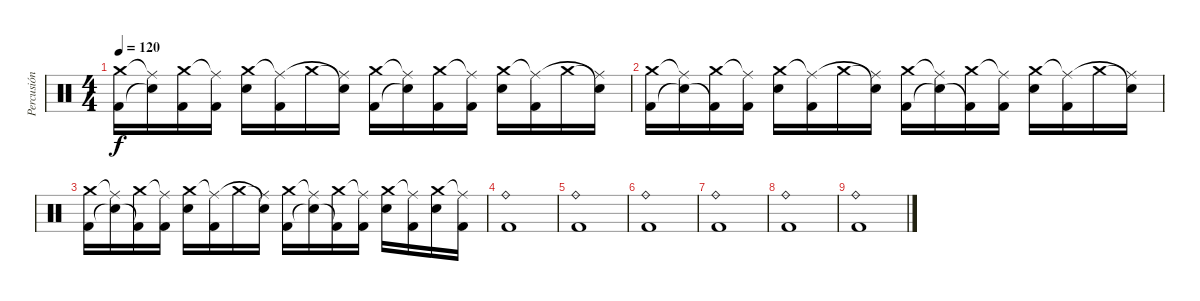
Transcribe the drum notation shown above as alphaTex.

\track ("Percusión" "Percusión") {instrument percussion}
\staff {score}
\articulation defaults
\ts (4 4)
\tempo 120
\clef neutral
\ks c
("Kick (hit) 2" "Crash medium (hit)").16{dy f} ("Snare (hit)"{t} "Ride (middle)"{t}).16 ("Kick (hit) 2" "Crash medium (hit)").16 ("Kick (hit) 2" "Ride (middle)"{t}).16 ("Electric Snare (hit)" "Crash medium (hit)").16 ("Kick (hit) 2" "Ride (middle)"{t}).16 "Crash medium (hit)".16 ("Snare (hit)"{t} "Ride (middle)"{t}).16 ("Kick (hit) 2" "Crash medium (hit)").16 ("Snare (hit)"{t} "Ride (middle)"{t}).16 ("Kick (hit) 2" "Crash medium (hit)").16 ("Kick (hit) 2" "Ride (middle)"{t}).16 ("Electric Snare (hit)" "Crash medium (hit)").16 ("Kick (hit) 2" "Ride (middle)"{t}).16 "Crash medium (hit)".16 ("Snare (hit)"{t} "Ride (middle)"{t}).16 |
("Kick (hit) 2" "Crash medium (hit)").16 ("Snare (hit)"{t} "Ride (middle)"{t}).16 ("Kick (hit) 2"{t} "Crash medium (hit)").16 ("Kick (hit) 2" "Ride (middle)"{t}).16 ("Electric Snare (hit)" "Crash medium (hit)").16 ("Kick (hit) 2" "Ride (middle)"{t}).16 "Crash medium (hit)".16 ("Snare (hit)"{t} "Ride (middle)"{t}).16 ("Kick (hit) 2" "Crash medium (hit)").16 ("Snare (hit)"{t} "Ride (middle)"{t}).16 ("Kick (hit) 2"{t} "Crash medium (hit)").16 ("Kick (hit) 2" "Ride (middle)"{t}).16 ("Electric Snare (hit)" "Crash medium (hit)").16 ("Kick (hit) 2" "Ride (middle)"{t}).16 "Crash medium (hit)".16 ("Snare (hit)"{t} "Ride (middle)"{t}).16 |
("Kick (hit) 2" "Crash medium (hit)").16 ("Snare (hit)"{t} "Ride (middle)"{t}).16 ("Kick (hit) 2"{t} "Crash medium (hit)").16 ("Kick (hit) 2" "Ride (middle)"{t}).16 ("Electric Snare (hit)" "Crash medium (hit)").16 ("Kick (hit) 2" "Ride (middle)"{t}).16 "Crash medium (hit)".16 ("Snare (hit)"{t} "Ride (middle)"{t}).16 ("Kick (hit) 2" "Crash medium (hit)").16 ("Snare (hit)"{t} "Ride (middle)"{t}).16 ("Kick (hit) 2"{t} "Crash medium (hit)").16 ("Kick (hit) 2" "Ride (middle)"{t}).16 ("Electric Snare (hit)" "Crash medium (hit)").16 ("Kick (hit) 2" "Ride (middle)"{t}).16 ("Electric Snare (hit)" "Crash medium (hit)").16 ("Kick (hit) 2" "Ride (middle)"{t}).16 |
("Ride (bell)" "Kick (hit) 2").1 |
("Ride (bell)" "Kick (hit) 2").1 |
("Ride (bell)" "Kick (hit) 2").1 |
("Ride (bell)" "Kick (hit) 2").1 |
("Ride (bell)" "Kick (hit) 2").1 |
("Ride (bell)" "Kick (hit) 2").1
